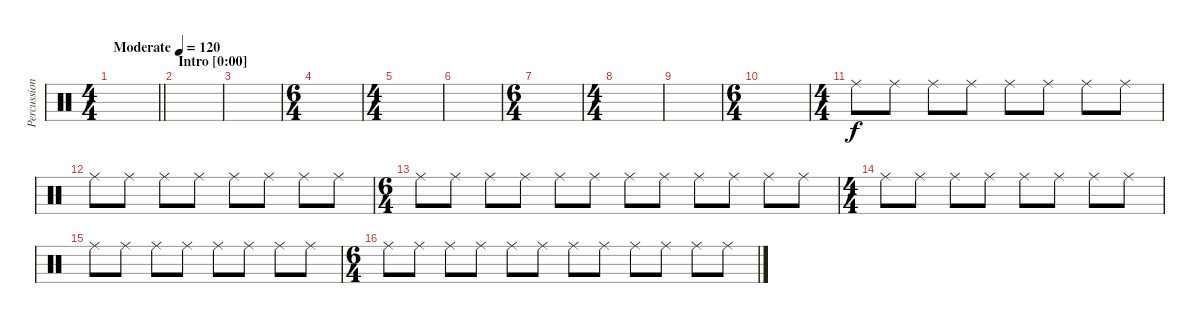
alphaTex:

\track ("Percussion" "Percussion") {instrument percussion}
\staff {score}
\articulation defaults
\ts (4 4)
\tempo (120 "Moderate")
\clef neutral
\barLineRight lightlight
\ks c
|
\section ("" "Intro [0:00]")
|
|
\ts (6 4)
|
\ts (4 4)
|
|
\ts (6 4)
|
\ts (4 4)
|
|
\ts (6 4)
|
\ts (4 4)
"Ride (middle)".8 "Ride (middle)".8 "Ride (middle)".8 "Ride (middle)".8 "Ride (middle)".8 "Ride (middle)".8 "Ride (middle)".8 "Ride (middle)".8 |
"Ride (middle)".8 "Ride (middle)".8 "Ride (middle)".8 "Ride (middle)".8 "Ride (middle)".8 "Ride (middle)".8 "Ride (middle)".8 "Ride (middle)".8 |
\ts (6 4)
"Ride (middle)".8 "Ride (middle)".8 "Ride (middle)".8 "Ride (middle)".8 "Ride (middle)".8 "Ride (middle)".8 "Ride (middle)".8 "Ride (middle)".8 "Ride (middle)".8 "Ride (middle)".8 "Ride (middle)".8 "Ride (middle)".8 |
\ts (4 4)
"Ride (middle)".8 "Ride (middle)".8 "Ride (middle)".8 "Ride (middle)".8 "Ride (middle)".8 "Ride (middle)".8 "Ride (middle)".8 "Ride (middle)".8 |
"Ride (middle)".8 "Ride (middle)".8 "Ride (middle)".8 "Ride (middle)".8 "Ride (middle)".8 "Ride (middle)".8 "Ride (middle)".8 "Ride (middle)".8 |
\ts (6 4)
"Ride (middle)".8 "Ride (middle)".8 "Ride (middle)".8 "Ride (middle)".8 "Ride (middle)".8 "Ride (middle)".8 "Ride (middle)".8 "Ride (middle)".8 "Ride (middle)".8 "Ride (middle)".8 "Ride (middle)".8 "Ride (middle)".8
